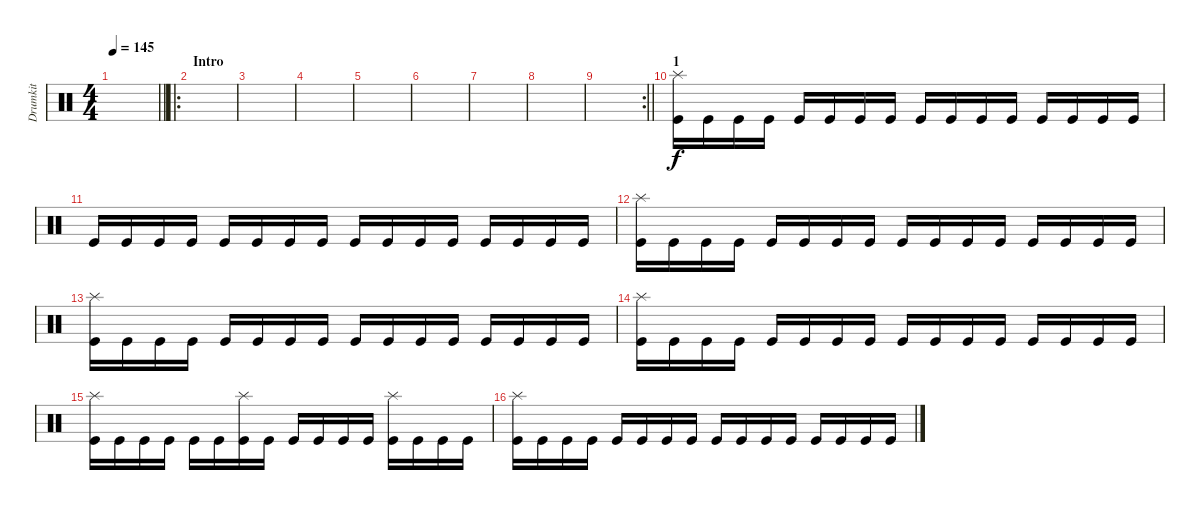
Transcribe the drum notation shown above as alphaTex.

\track ("Drumkit" "Drumkit") {instrument percussion}
\staff {score}
\articulation defaults
\ts (4 4)
\tempo 145
\clef neutral
\barLineRight lightlight
\ks c
|
\ro
\section ("" "Intro")
|
|
|
|
|
|
|
\rc 2
\barLineRight lightlight
|
\section ("" "1")
("Kick (hit)" "Splash (hit)").16 "Kick (hit)".16 "Kick (hit)".16 "Kick (hit)".16 "Kick (hit)".16 "Kick (hit)".16 "Kick (hit)".16 "Kick (hit)".16 "Kick (hit)".16 "Kick (hit)".16 "Kick (hit)".16 "Kick (hit)".16 "Kick (hit)".16 "Kick (hit)".16 "Kick (hit)".16 "Kick (hit)".16 |
"Kick (hit)".16 "Kick (hit)".16 "Kick (hit)".16 "Kick (hit)".16 "Kick (hit)".16 "Kick (hit)".16 "Kick (hit)".16 "Kick (hit)".16 "Kick (hit)".16 "Kick (hit)".16 "Kick (hit)".16 "Kick (hit)".16 "Kick (hit)".16 "Kick (hit)".16 "Kick (hit)".16 "Kick (hit)".16 |
("Kick (hit)" "Splash (hit)").16 "Kick (hit)".16 "Kick (hit)".16 "Kick (hit)".16 "Kick (hit)".16 "Kick (hit)".16 "Kick (hit)".16 "Kick (hit)".16 "Kick (hit)".16 "Kick (hit)".16 "Kick (hit)".16 "Kick (hit)".16 "Kick (hit)".16 "Kick (hit)".16 "Kick (hit)".16 "Kick (hit)".16 |
("Kick (hit)" "Splash (hit)").16 "Kick (hit)".16 "Kick (hit)".16 "Kick (hit)".16 "Kick (hit)".16 "Kick (hit)".16 "Kick (hit)".16 "Kick (hit)".16 "Kick (hit)".16 "Kick (hit)".16 "Kick (hit)".16 "Kick (hit)".16 "Kick (hit)".16 "Kick (hit)".16 "Kick (hit)".16 "Kick (hit)".16 |
("Kick (hit)" "Splash (hit)").16 "Kick (hit)".16 "Kick (hit)".16 "Kick (hit)".16 "Kick (hit)".16 "Kick (hit)".16 "Kick (hit)".16 "Kick (hit)".16 "Kick (hit)".16 "Kick (hit)".16 "Kick (hit)".16 "Kick (hit)".16 "Kick (hit)".16 "Kick (hit)".16 "Kick (hit)".16 "Kick (hit)".16 |
("Kick (hit)" "Splash (hit)").16 "Kick (hit)".16 "Kick (hit)".16 "Kick (hit)".16 "Kick (hit)".16 "Kick (hit)".16 ("Kick (hit)" "Splash (hit)").16 "Kick (hit)".16 "Kick (hit)".16 "Kick (hit)".16 "Kick (hit)".16 "Kick (hit)".16 ("Kick (hit)" "Splash (hit)").16 "Kick (hit)".16 "Kick (hit)".16 "Kick (hit)".16 |
("Kick (hit)" "Splash (hit)").16 "Kick (hit)".16 "Kick (hit)".16 "Kick (hit)".16 "Kick (hit)".16 "Kick (hit)".16 "Kick (hit)".16 "Kick (hit)".16 "Kick (hit)".16 "Kick (hit)".16 "Kick (hit)".16 "Kick (hit)".16 "Kick (hit)".16 "Kick (hit)".16 "Kick (hit)".16 "Kick (hit)".16
